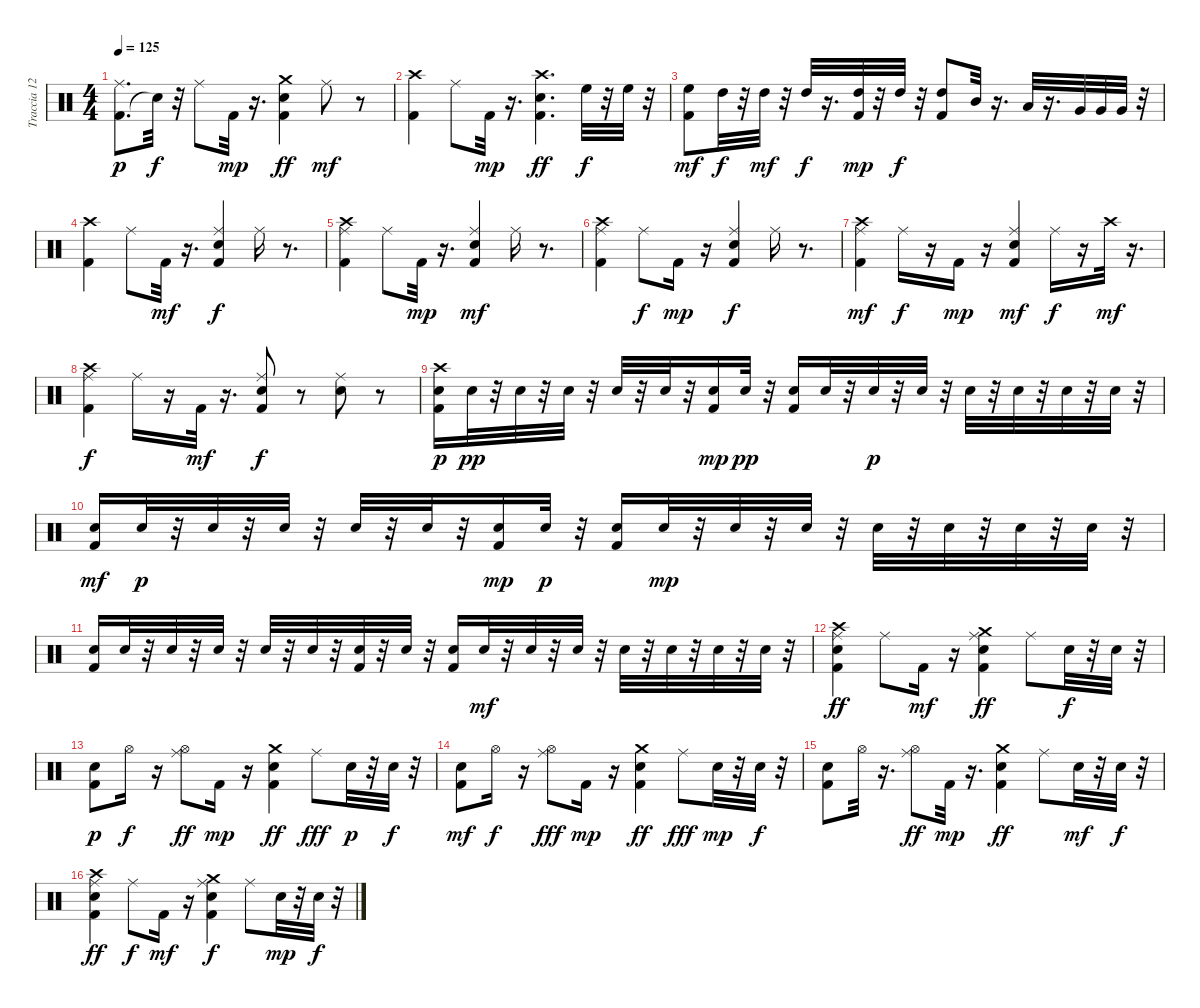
\track ("Traccia 12-13-14-15-16-17-18" "Traccia 12") {instrument percussion}
\staff {score}
\articulation defaults
\ts (4 4)
\tempo 125
\clef neutral
\ks c
("Kick (hit) 2" "Ride (middle)").8{d dy p} "Snare (hit)"{t}.32{dy f} r.32 "Ride (middle)".8 "Kick (hit) 2".32{dy mp} r.16{d} ("Electric Snare (hit)" "Kick (hit) 2" "Crash medium (hit)").4{dy ff} "Ride (middle)".8{dy mf} r.8 |
("Kick (hit) 2" "Crash high (hit)").4 "Ride (middle)".8 "Kick (hit) 2".32{dy mp} r.16{d} ("Electric Snare (hit)" "Kick (hit) 2" "Crash high (hit)").4{d dy ff} "High Floor Tom (hit)".32{dy f} r.32 "High Floor Tom (hit)".32 r.32 |
("High Floor Tom (hit)" "Kick (hit) 2").8{dy mf} "High Tom (hit)".32{dy f} r.32 "High Tom (hit)".32{dy mf} r.32 "High Tom (hit)".32{dy f} r.16{d} ("High Tom (hit)" "Kick (hit) 2").32{dy mp} r.32 "High Tom (hit)".32{dy f} r.32 ("High Tom (hit)" "Kick (hit) 2").8 "Mid Tom (hit)".32 r.16{d} "Low Tom (hit)".32 r.16{d} "Very Low Tom (hit)".32 "Very Low Tom (hit)".32 "Very Low Tom (hit)".32 r.32 |
("Kick (hit) 2" "Crash high (hit)").4 "Ride (middle)".8 "Kick (hit) 2".32{dy mf} r.16{d} ("Electric Snare (hit)" "Kick (hit) 2" "Ride (middle)").4{dy f} "Ride (middle)".16 r.8{d} |
("Kick (hit) 2" "Ride (middle)" "Crash high (hit)").4 "Ride (middle)".8 "Kick (hit) 2".32{dy mp} r.16{d} ("Electric Snare (hit)" "Kick (hit) 2" "Ride (middle)").4{dy mf} "Ride (middle)".16 r.8{d} |
("Kick (hit) 2" "Ride (middle)" "Crash high (hit)").4 "Ride (middle)".8{dy f} "Kick (hit) 2".16{dy mp} r.16 ("Electric Snare (hit)" "Kick (hit) 2" "Ride (middle)").4{dy f} "Ride (middle)".16 r.8{d} |
("Kick (hit) 2" "Ride (middle)" "Crash high (hit)").4{dy mf} "Ride (middle)".16{dy f} r.16 "Kick (hit) 2".16{dy mp} r.16 ("Electric Snare (hit)" "Kick (hit) 2" "Ride (middle)").4{dy mf} "Ride (middle)".16{dy f} r.16 "Crash high (hit)".32{dy mf} r.16{d} |
("Kick (hit) 2" "Ride (middle)" "Crash high (hit)").4{dy f} "Ride (middle)".16 r.16 "Kick (hit) 2".32{dy mf} r.16{d} ("Electric Snare (hit)" "Kick (hit) 2" "Ride (middle)").8{dy f} r.8 ("Electric Snare (hit)" "Ride (middle)").8 r.8 |
("Electric Snare (hit)" "Kick (hit) 2" "Crash high (hit)").16{dy p} "Electric Snare (hit)".32{dy pp} r.32 "Electric Snare (hit)".32 r.32 "Electric Snare (hit)".32 r.32 "Electric Snare (hit)".32 r.32 "Electric Snare (hit)".32 r.32 ("Electric Snare (hit)" "Kick (hit) 2").16{dy mp} "Electric Snare (hit)".32{dy pp} r.32 ("Electric Snare (hit)" "Kick (hit) 2").16 "Electric Snare (hit)".32 r.32 "Electric Snare (hit)".32{dy p} r.32 "Electric Snare (hit)".32 r.32 "Electric Snare (hit)".32 r.32 "Electric Snare (hit)".32 r.32 "Electric Snare (hit)".32 r.32 "Electric Snare (hit)".32 r.32 |
("Electric Snare (hit)" "Kick (hit) 2").16{dy mf} "Electric Snare (hit)".32{dy p} r.32 "Electric Snare (hit)".32 r.32 "Electric Snare (hit)".32 r.32 "Electric Snare (hit)".32 r.32 "Electric Snare (hit)".32 r.32 ("Electric Snare (hit)" "Kick (hit) 2").16{dy mp} "Electric Snare (hit)".32{dy p} r.32 ("Electric Snare (hit)" "Kick (hit) 2").16 "Electric Snare (hit)".32{dy mp} r.32 "Electric Snare (hit)".32 r.32 "Electric Snare (hit)".32 r.32 "Electric Snare (hit)".32 r.32 "Electric Snare (hit)".32 r.32 "Electric Snare (hit)".32 r.32 "Electric Snare (hit)".32 r.32 |
("Electric Snare (hit)" "Kick (hit) 2").16 "Electric Snare (hit)".32 r.32 "Electric Snare (hit)".32 r.32 "Electric Snare (hit)".32 r.32 "Electric Snare (hit)".32 r.32 "Electric Snare (hit)".32 r.32 ("Electric Snare (hit)" "Kick (hit) 2").32 r.32 "Electric Snare (hit)".32 r.32 ("Electric Snare (hit)" "Kick (hit) 2").16 "Electric Snare (hit)".32{dy mf} r.32 "Electric Snare (hit)".32 r.32 "Electric Snare (hit)".32 r.32 "Electric Snare (hit)".32 r.32 "Electric Snare (hit)".32 r.32 "Electric Snare (hit)".32 r.32 "Electric Snare (hit)".32 r.32 |
("Electric Snare (hit)" "Kick (hit) 2" "Ride (middle)" "Crash high (hit)").4{dy ff} "Ride (middle)".8 "Kick (hit) 2".16{dy mf} r.16 ("Electric Snare (hit)" "Kick (hit) 2" "Ride (middle)" "Crash medium (hit)").4{dy ff} "Ride (middle)".8 "Electric Snare (hit)".32{dy f} r.32 "Electric Snare (hit)".32 r.32 |
("Electric Snare (hit)" "Kick (hit) 2").8{dy p} "Hi-Hat (open)".16{dy f} r.16 ("Hi-Hat (open)" "Ride (middle)").8{dy ff} "Kick (hit) 2".16{dy mp} r.16 ("Electric Snare (hit)" "Kick (hit) 2" "Crash medium (hit)").4{dy ff} "Ride (middle)".8{dy fff} "Electric Snare (hit)".32{dy p} r.32 "Electric Snare (hit)".32{dy f} r.32 |
("Electric Snare (hit)" "Kick (hit) 2").8{dy mf} "Hi-Hat (open)".16{dy f} r.16 ("Hi-Hat (open)" "Ride (middle)").8{dy fff} "Kick (hit) 2".16{dy mp} r.16 ("Electric Snare (hit)" "Kick (hit) 2" "Crash medium (hit)").4{dy ff} "Ride (middle)".8{dy fff} "Electric Snare (hit)".32{dy mp} r.32 "Electric Snare (hit)".32{dy f} r.32 |
("Electric Snare (hit)" "Kick (hit) 2").8 "Hi-Hat (open)".32 r.16{d} ("Hi-Hat (open)" "Ride (middle)").8{dy ff} "Kick (hit) 2".32{dy mp} r.16{d} ("Electric Snare (hit)" "Kick (hit) 2" "Crash medium (hit)").4{dy ff} "Ride (middle)".8 "Electric Snare (hit)".32{dy mf} r.32 "Electric Snare (hit)".32{dy f} r.32 |
("Electric Snare (hit)" "Kick (hit) 2" "Ride (middle)" "Crash high (hit)").4{dy ff} "Ride (middle)".8{dy f} "Kick (hit) 2".16{dy mf} r.16 ("Electric Snare (hit)" "Kick (hit) 2" "Ride (middle)" "Crash medium (hit)").4{dy f} "Ride (middle)".8 "Electric Snare (hit)".32{dy mp} r.32 "Electric Snare (hit)".32{dy f} r.32
